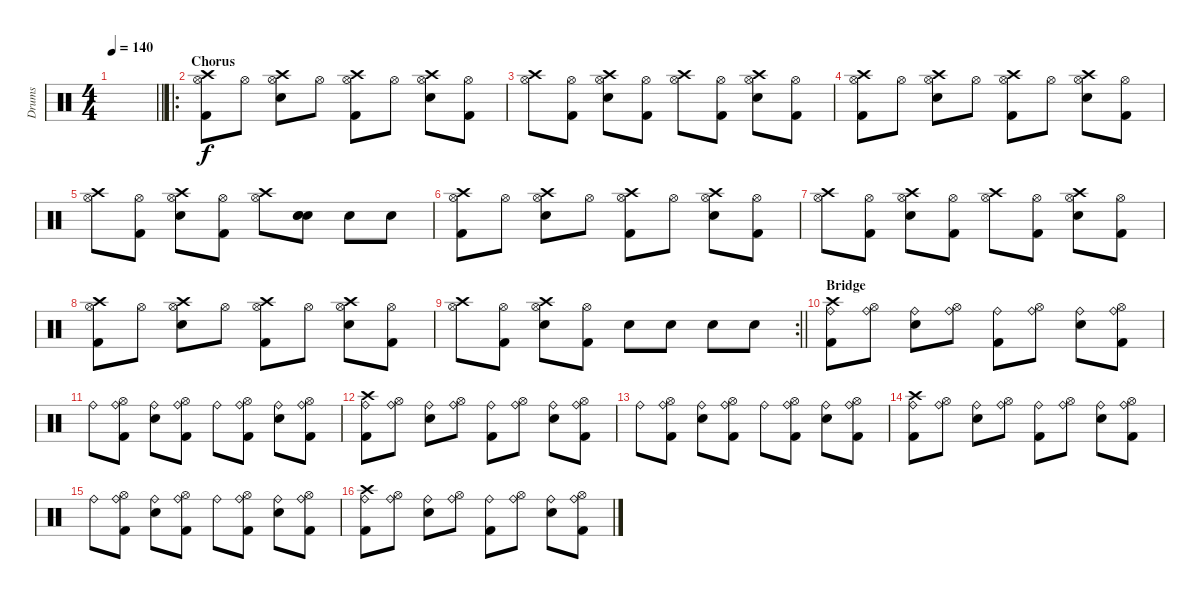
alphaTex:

\track ("Drums" "Drums") {instrument percussion}
\staff {score}
\articulation defaults
\ts (4 4)
\tempo 140
\clef neutral
\barLineRight lightlight
\ks c
|
\ro
\section ("" "Chorus")
("Crash high (hit)" "Hi-Hat (open)" "Kick (hit) 2").8 "Hi-Hat (open)".8 ("Crash high (hit)" "Hi-Hat (open)" "Electric Snare (hit)").8 "Hi-Hat (open)".8 ("Crash high (hit)" "Hi-Hat (open)" "Kick (hit) 2").8 "Hi-Hat (open)".8 ("Crash high (hit)" "Hi-Hat (open)" "Electric Snare (hit)").8 ("Hi-Hat (open)" "Kick (hit) 2").8 |
("Crash high (hit)" "Hi-Hat (open)").8 ("Hi-Hat (open)" "Kick (hit) 2").8 ("Crash high (hit)" "Hi-Hat (open)" "Electric Snare (hit)").8 ("Hi-Hat (open)" "Kick (hit) 2").8 ("Crash high (hit)" "Hi-Hat (open)").8 ("Hi-Hat (open)" "Kick (hit) 2").8 ("Crash high (hit)" "Hi-Hat (open)" "Electric Snare (hit)").8 ("Hi-Hat (open)" "Kick (hit) 2").8 |
("Crash high (hit)" "Hi-Hat (open)" "Kick (hit) 2").8 "Hi-Hat (open)".8 ("Crash high (hit)" "Hi-Hat (open)" "Electric Snare (hit)").8 "Hi-Hat (open)".8 ("Crash high (hit)" "Hi-Hat (open)" "Kick (hit) 2").8 "Hi-Hat (open)".8 ("Crash high (hit)" "Hi-Hat (open)" "Electric Snare (hit)").8 ("Hi-Hat (open)" "Kick (hit) 2").8 |
("Crash high (hit)" "Hi-Hat (open)").8 ("Hi-Hat (open)" "Kick (hit) 2").8 ("Crash high (hit)" "Hi-Hat (open)" "Electric Snare (hit)").8 ("Hi-Hat (open)" "Kick (hit) 2").8 ("Crash high (hit)" "Hi-Hat (open)").8 ("Snare (hit) 2" "Electric Snare (hit)" "Snare (hit) 2").8 "Electric Snare (hit)".8 "Electric Snare (hit)".8 |
("Crash high (hit)" "Hi-Hat (open)" "Kick (hit) 2").8 "Hi-Hat (open)".8 ("Crash high (hit)" "Hi-Hat (open)" "Electric Snare (hit)").8 "Hi-Hat (open)".8 ("Crash high (hit)" "Hi-Hat (open)" "Kick (hit) 2").8 "Hi-Hat (open)".8 ("Crash high (hit)" "Hi-Hat (open)" "Electric Snare (hit)").8 ("Hi-Hat (open)" "Kick (hit) 2").8 |
("Crash high (hit)" "Hi-Hat (open)").8 ("Hi-Hat (open)" "Kick (hit) 2").8 ("Crash high (hit)" "Hi-Hat (open)" "Electric Snare (hit)").8 ("Hi-Hat (open)" "Kick (hit) 2").8 ("Crash high (hit)" "Hi-Hat (open)").8 ("Hi-Hat (open)" "Kick (hit) 2").8 ("Crash high (hit)" "Hi-Hat (open)" "Electric Snare (hit)").8 ("Hi-Hat (open)" "Kick (hit) 2").8 |
("Crash high (hit)" "Hi-Hat (open)" "Kick (hit) 2").8 "Hi-Hat (open)".8 ("Crash high (hit)" "Hi-Hat (open)" "Electric Snare (hit)").8 "Hi-Hat (open)".8 ("Crash high (hit)" "Hi-Hat (open)" "Kick (hit) 2").8 "Hi-Hat (open)".8 ("Crash high (hit)" "Hi-Hat (open)" "Electric Snare (hit)").8 ("Hi-Hat (open)" "Kick (hit) 2").8 |
\rc 2
\barLineRight lightlight
("Crash high (hit)" "Hi-Hat (open)").8 ("Hi-Hat (open)" "Kick (hit) 2").8 ("Crash high (hit)" "Hi-Hat (open)" "Electric Snare (hit)").8 ("Hi-Hat (open)" "Kick (hit) 2").8 "Electric Snare (hit)".8 "Electric Snare (hit)".8 "Electric Snare (hit)".8 "Electric Snare (hit)".8 |
\section ("" "Bridge")
("Crash high (hit)" "Ride (bell)" "Kick (hit) 2").8 ("Ride (bell)" "Hi-Hat (open)").8 ("Ride (bell)" "Electric Snare (hit)").8 ("Ride (bell)" "Hi-Hat (open)").8 ("Ride (bell)" "Kick (hit) 2").8 ("Ride (bell)" "Hi-Hat (open)").8 ("Ride (bell)" "Electric Snare (hit)").8 ("Ride (bell)" "Hi-Hat (open)" "Kick (hit) 2").8 |
"Ride (bell)".8 ("Ride (bell)" "Hi-Hat (open)" "Kick (hit) 2").8 ("Ride (bell)" "Electric Snare (hit)").8 ("Ride (bell)" "Hi-Hat (open)" "Kick (hit) 2").8 "Ride (bell)".8 ("Ride (bell)" "Hi-Hat (open)" "Kick (hit) 2").8 ("Ride (bell)" "Electric Snare (hit)").8 ("Ride (bell)" "Hi-Hat (open)" "Kick (hit) 2").8 |
("Crash high (hit)" "Ride (bell)" "Kick (hit) 2").8 ("Ride (bell)" "Hi-Hat (open)").8 ("Ride (bell)" "Electric Snare (hit)").8 ("Ride (bell)" "Hi-Hat (open)").8 ("Ride (bell)" "Kick (hit) 2").8 ("Ride (bell)" "Hi-Hat (open)").8 ("Ride (bell)" "Electric Snare (hit)").8 ("Ride (bell)" "Hi-Hat (open)" "Kick (hit) 2").8 |
"Ride (bell)".8 ("Ride (bell)" "Hi-Hat (open)" "Kick (hit) 2").8 ("Ride (bell)" "Electric Snare (hit)").8 ("Ride (bell)" "Hi-Hat (open)" "Kick (hit) 2").8 "Ride (bell)".8 ("Ride (bell)" "Hi-Hat (open)" "Kick (hit) 2").8 ("Ride (bell)" "Electric Snare (hit)").8 ("Ride (bell)" "Hi-Hat (open)" "Kick (hit) 2").8 |
("Crash high (hit)" "Ride (bell)" "Kick (hit) 2").8 ("Ride (bell)" "Hi-Hat (open)").8 ("Ride (bell)" "Electric Snare (hit)").8 ("Ride (bell)" "Hi-Hat (open)").8 ("Ride (bell)" "Kick (hit) 2").8 ("Ride (bell)" "Hi-Hat (open)").8 ("Ride (bell)" "Electric Snare (hit)").8 ("Ride (bell)" "Hi-Hat (open)" "Kick (hit) 2").8 |
"Ride (bell)".8 ("Ride (bell)" "Hi-Hat (open)" "Kick (hit) 2").8 ("Ride (bell)" "Electric Snare (hit)").8 ("Ride (bell)" "Hi-Hat (open)" "Kick (hit) 2").8 "Ride (bell)".8 ("Ride (bell)" "Hi-Hat (open)" "Kick (hit) 2").8 ("Ride (bell)" "Electric Snare (hit)").8 ("Ride (bell)" "Hi-Hat (open)" "Kick (hit) 2").8 |
("Crash high (hit)" "Ride (bell)" "Kick (hit) 2").8 ("Ride (bell)" "Hi-Hat (open)").8 ("Ride (bell)" "Electric Snare (hit)").8 ("Ride (bell)" "Hi-Hat (open)").8 ("Ride (bell)" "Kick (hit) 2").8 ("Ride (bell)" "Hi-Hat (open)").8 ("Ride (bell)" "Electric Snare (hit)").8 ("Ride (bell)" "Hi-Hat (open)" "Kick (hit) 2").8
